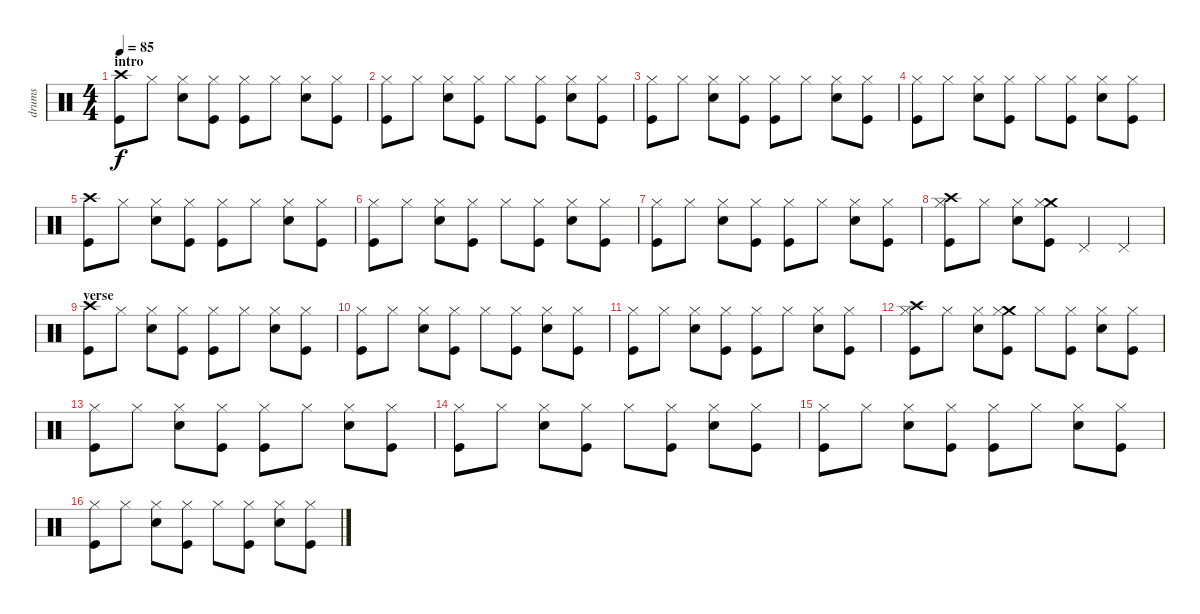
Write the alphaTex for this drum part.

\track ("drums" "drums") {instrument percussion}
\staff {score}
\articulation defaults
\ts (4 4)
\section ("" "intro")
\tempo 85
\clef neutral
\ks c
("Crash high (hit)" "Kick (hit)").8{dy f} "Hi-Hat (closed)".8 ("Hi-Hat (closed)" "Snare (hit) 2").8 ("Hi-Hat (closed)" "Kick (hit)").8 ("Hi-Hat (closed)" "Kick (hit)").8 "Hi-Hat (closed)".8 ("Hi-Hat (closed)" "Snare (hit) 2").8 ("Hi-Hat (closed)" "Kick (hit)").8 |
("Hi-Hat (closed)" "Kick (hit)").8 "Hi-Hat (closed)".8 ("Hi-Hat (closed)" "Snare (hit) 2").8 ("Hi-Hat (closed)" "Kick (hit)").8 "Hi-Hat (closed)".8 ("Hi-Hat (closed)" "Kick (hit)").8 ("Hi-Hat (closed)" "Snare (hit) 2").8 ("Hi-Hat (closed)" "Kick (hit)").8 |
("Hi-Hat (closed)" "Kick (hit)").8 "Hi-Hat (closed)".8 ("Hi-Hat (closed)" "Snare (hit) 2").8 ("Hi-Hat (closed)" "Kick (hit)").8 ("Hi-Hat (closed)" "Kick (hit)").8 "Hi-Hat (closed)".8 ("Hi-Hat (closed)" "Snare (hit) 2").8 ("Hi-Hat (closed)" "Kick (hit)").8 |
("Hi-Hat (closed)" "Kick (hit)").8 "Hi-Hat (closed)".8 ("Hi-Hat (closed)" "Snare (hit) 2").8 ("Hi-Hat (closed)" "Kick (hit)").8 "Hi-Hat (closed)".8 ("Hi-Hat (closed)" "Kick (hit)").8 ("Hi-Hat (closed)" "Snare (hit) 2").8 ("Hi-Hat (closed)" "Kick (hit)").8 |
("Crash high (hit)" "Kick (hit)").8 "Hi-Hat (closed)".8 ("Hi-Hat (closed)" "Snare (hit) 2").8 ("Hi-Hat (closed)" "Kick (hit)").8 ("Hi-Hat (closed)" "Kick (hit)").8 "Hi-Hat (closed)".8 ("Hi-Hat (closed)" "Snare (hit) 2").8 ("Hi-Hat (closed)" "Kick (hit)").8 |
("Hi-Hat (closed)" "Kick (hit)").8 "Hi-Hat (closed)".8 ("Hi-Hat (closed)" "Snare (hit) 2").8 ("Hi-Hat (closed)" "Kick (hit)").8 "Hi-Hat (closed)".8 ("Hi-Hat (closed)" "Kick (hit)").8 ("Hi-Hat (closed)" "Snare (hit) 2").8 ("Hi-Hat (closed)" "Kick (hit)").8 |
("Hi-Hat (closed)" "Kick (hit)").8 "Hi-Hat (closed)".8 ("Hi-Hat (closed)" "Snare (hit) 2").8 ("Hi-Hat (closed)" "Kick (hit)").8 ("Hi-Hat (closed)" "Kick (hit)").8 "Hi-Hat (closed)".8 ("Hi-Hat (closed)" "Snare (hit) 2").8 ("Hi-Hat (closed)" "Kick (hit)").8 |
("Crash high (hit)" "Hi-Hat (closed)" "Kick (hit)").8 "Hi-Hat (closed)".8 ("Hi-Hat (closed)" "Snare (hit) 2").8 ("Crash medium (hit)" "Hi-Hat (closed)" "Kick (hit)").8 "Pedal Hi-Hat (hit)".4{volume 12} "Pedal Hi-Hat (hit)".4 |
\section ("" "verse")
("Crash high (hit)" "Kick (hit)").8{volume 16} "Hi-Hat (closed)".8 ("Hi-Hat (closed)" "Snare (hit) 2").8 ("Hi-Hat (closed)" "Kick (hit)").8 ("Hi-Hat (closed)" "Kick (hit)").8 "Hi-Hat (closed)".8 ("Hi-Hat (closed)" "Snare (hit) 2").8 ("Hi-Hat (closed)" "Kick (hit)").8 |
("Hi-Hat (closed)" "Kick (hit)").8 "Hi-Hat (closed)".8 ("Hi-Hat (closed)" "Snare (hit) 2").8 ("Hi-Hat (closed)" "Kick (hit)").8 "Hi-Hat (closed)".8 ("Hi-Hat (closed)" "Kick (hit)").8 ("Hi-Hat (closed)" "Snare (hit) 2").8 ("Hi-Hat (closed)" "Kick (hit)").8 |
("Hi-Hat (closed)" "Kick (hit)").8 "Hi-Hat (closed)".8 ("Hi-Hat (closed)" "Snare (hit) 2").8 ("Hi-Hat (closed)" "Kick (hit)").8 ("Hi-Hat (closed)" "Kick (hit)").8 "Hi-Hat (closed)".8 ("Hi-Hat (closed)" "Snare (hit) 2").8 ("Hi-Hat (closed)" "Kick (hit)").8 |
("Crash high (hit)" "Hi-Hat (closed)" "Kick (hit)").8 "Hi-Hat (closed)".8 ("Hi-Hat (closed)" "Snare (hit) 2").8 ("Crash medium (hit)" "Hi-Hat (closed)" "Kick (hit)").8 "Hi-Hat (closed)".8 ("Hi-Hat (closed)" "Kick (hit)").8 ("Hi-Hat (closed)" "Snare (hit) 2").8 ("Hi-Hat (closed)" "Kick (hit)").8 |
("Hi-Hat (closed)" "Kick (hit)").8 "Hi-Hat (closed)".8 ("Hi-Hat (closed)" "Snare (hit) 2").8 ("Hi-Hat (closed)" "Kick (hit)").8 ("Hi-Hat (closed)" "Kick (hit)").8 "Hi-Hat (closed)".8 ("Hi-Hat (closed)" "Snare (hit) 2").8 ("Hi-Hat (closed)" "Kick (hit)").8 |
("Hi-Hat (closed)" "Kick (hit)").8 "Hi-Hat (closed)".8 ("Hi-Hat (closed)" "Snare (hit) 2").8 ("Hi-Hat (closed)" "Kick (hit)").8 "Hi-Hat (closed)".8 ("Hi-Hat (closed)" "Kick (hit)").8 ("Hi-Hat (closed)" "Snare (hit) 2").8 ("Hi-Hat (closed)" "Kick (hit)").8 |
("Hi-Hat (closed)" "Kick (hit)").8 "Hi-Hat (closed)".8 ("Hi-Hat (closed)" "Snare (hit) 2").8 ("Hi-Hat (closed)" "Kick (hit)").8 ("Hi-Hat (closed)" "Kick (hit)").8 "Hi-Hat (closed)".8 ("Hi-Hat (closed)" "Snare (hit) 2").8 ("Hi-Hat (closed)" "Kick (hit)").8 |
("Hi-Hat (closed)" "Kick (hit)").8 "Hi-Hat (closed)".8 ("Hi-Hat (closed)" "Snare (hit) 2").8 ("Hi-Hat (closed)" "Kick (hit)").8 "Hi-Hat (closed)".8 ("Hi-Hat (closed)" "Kick (hit)").8 ("Hi-Hat (closed)" "Snare (hit) 2").8 ("Hi-Hat (closed)" "Kick (hit)").8
